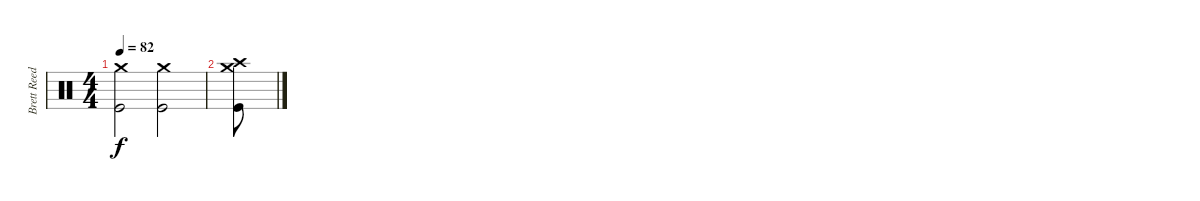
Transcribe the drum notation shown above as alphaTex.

\track ("Brett Reed" "Brett Reed") {instrument percussion}
\staff {score}
\articulation defaults
\ts (4 4)
\tempo 82
\clef neutral
\ks c
("Crash medium (hit)" "Kick (hit)").2{dy f} ("Crash medium (hit)" "Kick (hit)").2 |
("Crash high (hit)" "Crash medium (hit)" "Kick (hit)").8
